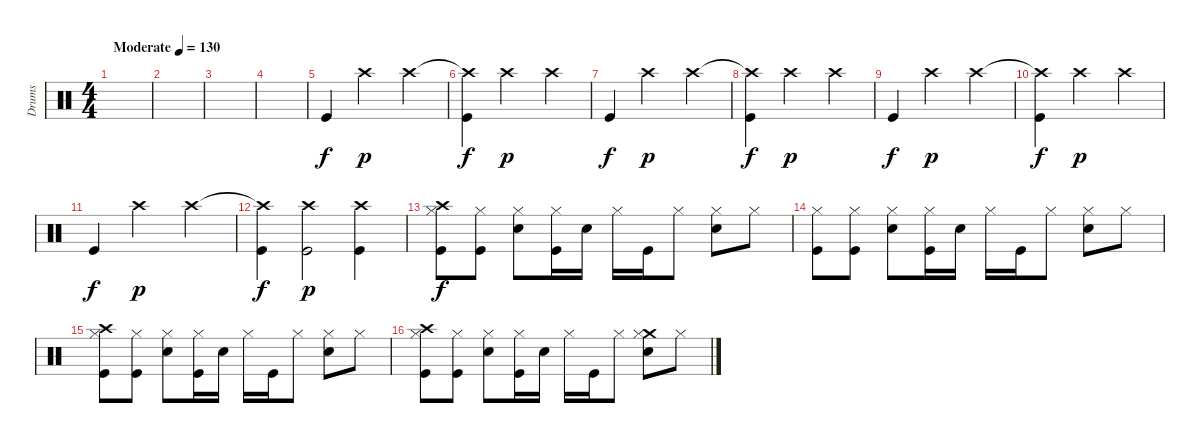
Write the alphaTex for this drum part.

\track ("Drums" "Drums") {instrument percussion}
\staff {score}
\articulation defaults
\ts (4 4)
\tempo (130 "Moderate")
\clef neutral
\ks c
|
|
|
|
"Kick (hit)".4 "Crash high (hit)".2{dy p} "Crash high (hit)".4 |
("Crash high (hit)"{t} "Kick (hit)").4{dy f} "Crash high (hit)".2{dy p} "Crash high (hit)".4 |
"Kick (hit)".4{dy f} "Crash high (hit)".2{dy p} "Crash high (hit)".4 |
("Crash high (hit)"{t} "Kick (hit)").4{dy f} "Crash high (hit)".2{dy p} "Crash high (hit)".4 |
"Kick (hit)".4{dy f} "Crash high (hit)".2{dy p} "Crash high (hit)".4 |
("Crash high (hit)"{t} "Kick (hit)").4{dy f} "Crash high (hit)".2{dy p} "Crash high (hit)".4 |
"Kick (hit)".4{dy f} "Crash high (hit)".2{dy p} "Crash high (hit)".4 |
("Crash high (hit)"{t} "Kick (hit)").4{dy f} ("Crash high (hit)" "Kick (hit)").2{dy p} ("Crash high (hit)" "Kick (hit)").4 |
("Crash high (hit)" "Hi-Hat (closed)" "Kick (hit)").8{dy f} ("Hi-Hat (closed)" "Kick (hit)").8 ("Hi-Hat (closed)" "Snare (hit) 2").8 ("Hi-Hat (closed)" "Kick (hit)").16 "Snare (hit) 2".16 "Hi-Hat (closed)".16 "Kick (hit)".16 "Hi-Hat (closed)".8 ("Hi-Hat (closed)" "Snare (hit) 2").8 "Hi-Hat (closed)".8 |
("Hi-Hat (closed)" "Kick (hit)").8 ("Hi-Hat (closed)" "Kick (hit)").8 ("Hi-Hat (closed)" "Snare (hit) 2").8 ("Hi-Hat (closed)" "Kick (hit)").16 "Snare (hit) 2".16 "Hi-Hat (closed)".16 "Kick (hit)".16 "Hi-Hat (closed)".8 ("Hi-Hat (closed)" "Snare (hit) 2").8 "Hi-Hat (closed)".8 |
("Crash high (hit)" "Hi-Hat (closed)" "Kick (hit)").8 ("Hi-Hat (closed)" "Kick (hit)").8 ("Hi-Hat (closed)" "Snare (hit) 2").8 ("Hi-Hat (closed)" "Kick (hit)").16 "Snare (hit) 2".16 "Hi-Hat (closed)".16 "Kick (hit)".16 "Hi-Hat (closed)".8 ("Hi-Hat (closed)" "Snare (hit) 2").8 "Hi-Hat (closed)".8 |
("Crash high (hit)" "Hi-Hat (closed)" "Kick (hit)").8 ("Hi-Hat (closed)" "Kick (hit)").8 ("Hi-Hat (closed)" "Snare (hit) 2").8 ("Hi-Hat (closed)" "Kick (hit)").16 "Snare (hit) 2".16 "Hi-Hat (closed)".16 "Kick (hit)".16 "Hi-Hat (closed)".8 ("Crash medium (hit)" "Hi-Hat (closed)" "Snare (hit) 2").8 "Hi-Hat (closed)".8
